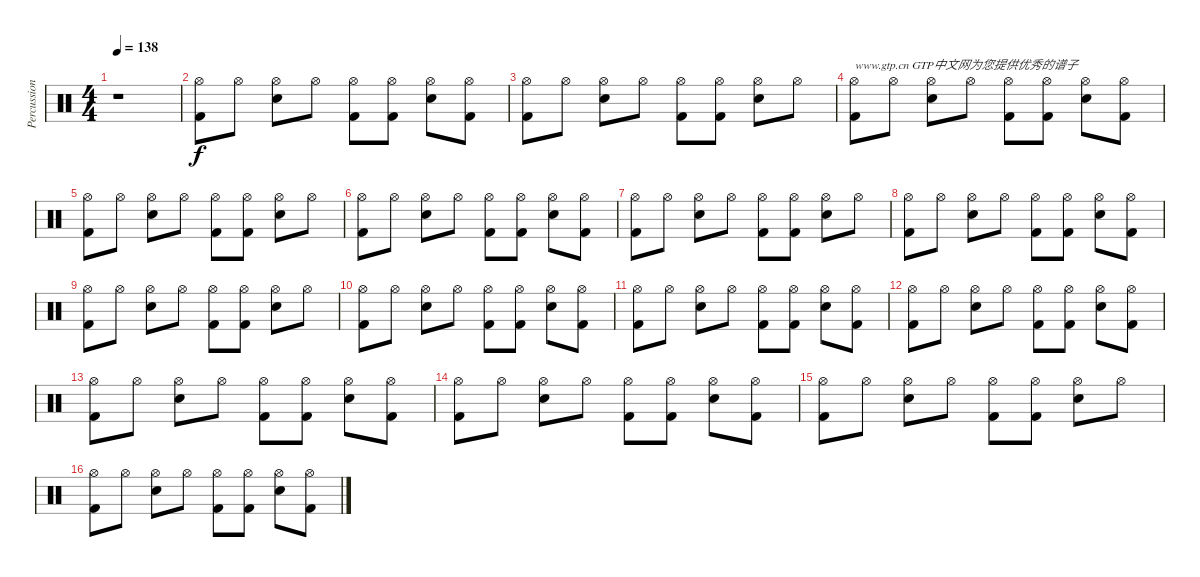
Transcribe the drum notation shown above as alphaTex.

\track ("Percussion" "Percussion") {instrument percussion}
\staff {score}
\articulation defaults
\ts (4 4)
\tempo 138
\clef neutral
\ks c
r.1{dy f} |
("Hi-Hat (open)" "Kick (hit) 2").8 "Hi-Hat (open)".8 ("Hi-Hat (open)" "Snare (hit) 2").8 "Hi-Hat (open)".8 ("Hi-Hat (open)" "Kick (hit) 2").8 ("Hi-Hat (open)" "Kick (hit) 2").8 ("Hi-Hat (open)" "Snare (hit) 2").8 ("Hi-Hat (open)" "Kick (hit) 2").8 |
("Hi-Hat (open)" "Kick (hit) 2").8 "Hi-Hat (open)".8 ("Hi-Hat (open)" "Snare (hit) 2").8 "Hi-Hat (open)".8 ("Hi-Hat (open)" "Kick (hit) 2").8 ("Hi-Hat (open)" "Kick (hit) 2").8 ("Hi-Hat (open)" "Snare (hit) 2").8 "Hi-Hat (open)".8 |
("Hi-Hat (open)" "Kick (hit) 2").8{txt "www.gtp.cn GTP中文网为您提供优秀的谱子"} "Hi-Hat (open)".8 ("Hi-Hat (open)" "Snare (hit) 2").8 "Hi-Hat (open)".8 ("Hi-Hat (open)" "Kick (hit) 2").8 ("Hi-Hat (open)" "Kick (hit) 2").8 ("Hi-Hat (open)" "Snare (hit) 2").8 ("Hi-Hat (open)" "Kick (hit) 2").8 |
("Hi-Hat (open)" "Kick (hit) 2").8 "Hi-Hat (open)".8 ("Hi-Hat (open)" "Snare (hit) 2").8 "Hi-Hat (open)".8 ("Hi-Hat (open)" "Kick (hit) 2").8 ("Hi-Hat (open)" "Kick (hit) 2").8 ("Hi-Hat (open)" "Snare (hit) 2").8 "Hi-Hat (open)".8 |
("Hi-Hat (open)" "Kick (hit) 2").8 "Hi-Hat (open)".8 ("Hi-Hat (open)" "Snare (hit) 2").8 "Hi-Hat (open)".8 ("Hi-Hat (open)" "Kick (hit) 2").8 ("Hi-Hat (open)" "Kick (hit) 2").8 ("Hi-Hat (open)" "Snare (hit) 2").8 ("Hi-Hat (open)" "Kick (hit) 2").8 |
("Hi-Hat (open)" "Kick (hit) 2").8 "Hi-Hat (open)".8 ("Hi-Hat (open)" "Snare (hit) 2").8 "Hi-Hat (open)".8 ("Hi-Hat (open)" "Kick (hit) 2").8 ("Hi-Hat (open)" "Kick (hit) 2").8 ("Hi-Hat (open)" "Snare (hit) 2").8 "Hi-Hat (open)".8 |
("Hi-Hat (open)" "Kick (hit) 2").8 "Hi-Hat (open)".8 ("Hi-Hat (open)" "Snare (hit) 2").8 "Hi-Hat (open)".8 ("Hi-Hat (open)" "Kick (hit) 2").8 ("Hi-Hat (open)" "Kick (hit) 2").8 ("Hi-Hat (open)" "Snare (hit) 2").8 ("Hi-Hat (open)" "Kick (hit) 2").8 |
("Hi-Hat (open)" "Kick (hit) 2").8 "Hi-Hat (open)".8 ("Hi-Hat (open)" "Snare (hit) 2").8 "Hi-Hat (open)".8 ("Hi-Hat (open)" "Kick (hit) 2").8 ("Hi-Hat (open)" "Kick (hit) 2").8 ("Hi-Hat (open)" "Snare (hit) 2").8 "Hi-Hat (open)".8 |
("Hi-Hat (open)" "Kick (hit) 2").8 "Hi-Hat (open)".8 ("Hi-Hat (open)" "Snare (hit) 2").8 "Hi-Hat (open)".8 ("Hi-Hat (open)" "Kick (hit) 2").8 ("Hi-Hat (open)" "Kick (hit) 2").8 ("Hi-Hat (open)" "Snare (hit) 2").8 ("Hi-Hat (open)" "Kick (hit) 2").8 |
("Hi-Hat (open)" "Kick (hit) 2").8 "Hi-Hat (open)".8 ("Hi-Hat (open)" "Snare (hit) 2").8 "Hi-Hat (open)".8 ("Hi-Hat (open)" "Kick (hit) 2").8 ("Hi-Hat (open)" "Kick (hit) 2").8 ("Hi-Hat (open)" "Snare (hit) 2").8 ("Hi-Hat (open)" "Kick (hit) 2").8 |
("Hi-Hat (open)" "Kick (hit) 2").8 "Hi-Hat (open)".8 ("Hi-Hat (open)" "Snare (hit) 2").8 "Hi-Hat (open)".8 ("Hi-Hat (open)" "Kick (hit) 2").8 ("Hi-Hat (open)" "Kick (hit) 2").8 ("Hi-Hat (open)" "Snare (hit) 2").8 ("Hi-Hat (open)" "Kick (hit) 2").8 |
("Hi-Hat (open)" "Kick (hit) 2").8 "Hi-Hat (open)".8 ("Hi-Hat (open)" "Snare (hit) 2").8 "Hi-Hat (open)".8 ("Hi-Hat (open)" "Kick (hit) 2").8 ("Hi-Hat (open)" "Kick (hit) 2").8 ("Hi-Hat (open)" "Snare (hit) 2").8 ("Hi-Hat (open)" "Kick (hit) 2").8 |
("Hi-Hat (open)" "Kick (hit) 2").8 "Hi-Hat (open)".8 ("Hi-Hat (open)" "Snare (hit) 2").8 "Hi-Hat (open)".8 ("Hi-Hat (open)" "Kick (hit) 2").8 ("Hi-Hat (open)" "Kick (hit) 2").8 ("Hi-Hat (open)" "Snare (hit) 2").8 ("Hi-Hat (open)" "Kick (hit) 2").8 |
("Hi-Hat (open)" "Kick (hit) 2").8 "Hi-Hat (open)".8 ("Hi-Hat (open)" "Snare (hit) 2").8 "Hi-Hat (open)".8 ("Hi-Hat (open)" "Kick (hit) 2").8 ("Hi-Hat (open)" "Kick (hit) 2").8 ("Hi-Hat (open)" "Snare (hit) 2").8 "Hi-Hat (open)".8 |
("Hi-Hat (open)" "Kick (hit) 2").8 "Hi-Hat (open)".8 ("Hi-Hat (open)" "Snare (hit) 2").8 "Hi-Hat (open)".8 ("Hi-Hat (open)" "Kick (hit) 2").8 ("Hi-Hat (open)" "Kick (hit) 2").8 ("Hi-Hat (open)" "Snare (hit) 2").8 ("Hi-Hat (open)" "Kick (hit) 2").8
